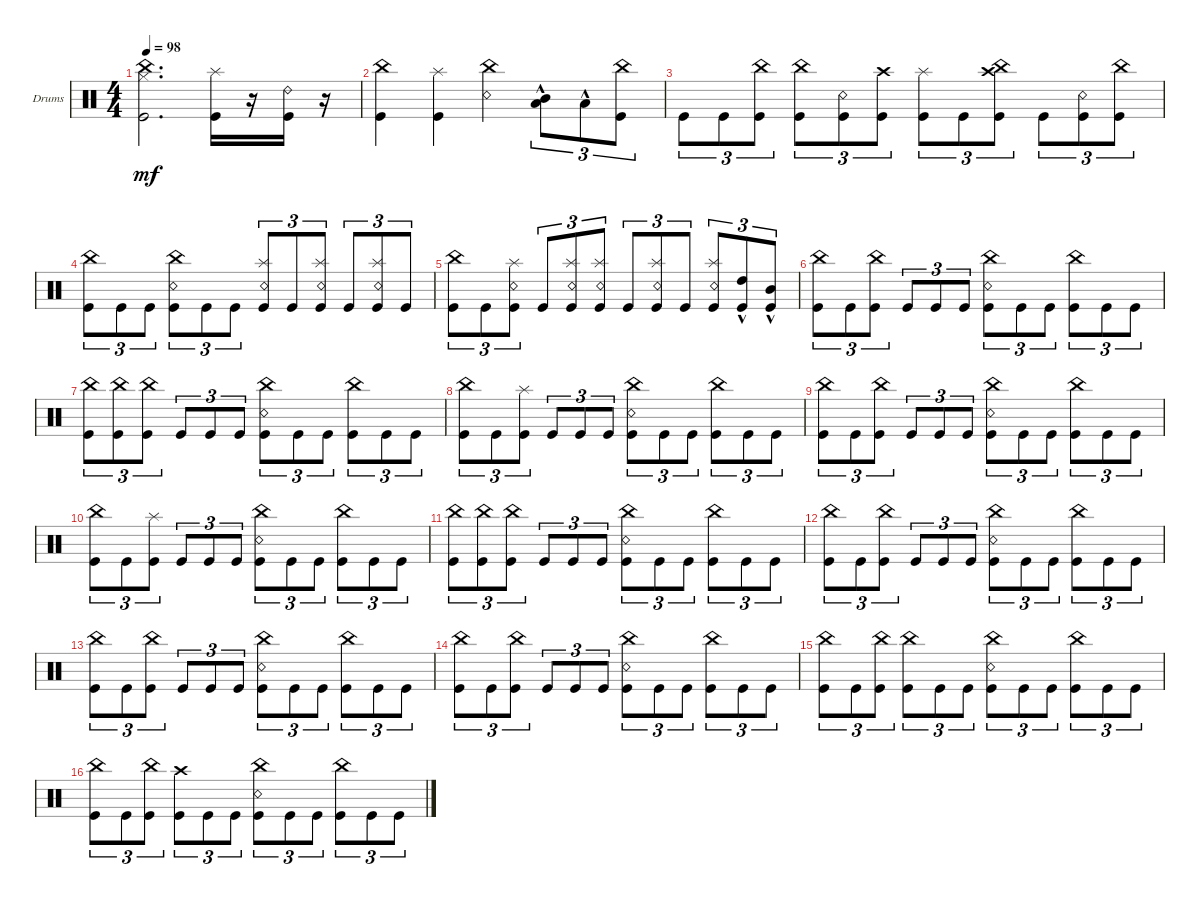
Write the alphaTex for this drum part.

\defaultSystemsLayout 4
\bracketExtendMode groupsimilarinstruments
\firstSystemTrackNameOrientation horizontal
\otherSystemsTrackNameOrientation horizontal
\track ("Drumkit" "Drums") {instrument percussion}
\staff {score}
\articulation defaults
\ts (4 4)
\tempo 98
\clef neutral
\scale
0.333333
\ks c
("China (hit)" "Kick (hit)" "Hi-Hat (closed)").2{d dy mf} ("Splash (hit)" "Kick (hit)").16 r.16 ("Kick (hit)" "Ride (bell) 2").16 r.16 |
\scale
0.333333 ("Kick (hit)" "China (hit)").4 ("Kick (hit)" "Splash (hit)").4 ("Snare (rim shot)" "China (hit)").4 ("Mid Tom (hit)" "Low Tom (hit)"{hac}).8{tu (3 2)} "Low Tom (hit)"{hac}.8{tu (3 2)} ("Kick (hit)" "China (hit)").8{tu (3 2)} |
\scale
0.333333 "Kick (hit)".8{tu (3 2)} "Kick (hit)".8{tu (3 2)} ("Kick (hit)" "China (hit)").8{tu (3 2)} ("Kick (hit)" "China (hit)").8{tu (3 2)} ("Kick (hit)" "Snare (rim shot)").8{tu (3 2)} ("Kick (hit)" "Crash high (hit)").8{tu (3 2)} ("Kick (hit)" "Splash (hit)").8{tu (3 2)} "Kick (hit)".8{tu (3 2)} ("Kick (hit)" "China (hit)" "Crash high (hit)").8{tu (3 2)} "Kick (hit)".8{tu (3 2)} ("Kick (hit)" "Snare (rim shot)").8{tu (3 2)} ("Kick (hit)" "China (hit)").8{tu (3 2)} |
\scale
0.333333 ("Kick (hit)" "China (hit)").8{tu (3 2)} "Kick (hit)".8{tu (3 2)} "Kick (hit)".8{tu (3 2)} ("Kick (hit)" "China (hit)" "Snare (rim shot)").8{tu (3 2)} "Kick (hit)".8{tu (3 2)} "Kick (hit)".8{tu (3 2)} ("Kick (hit)" "Snare (rim shot)" "Splash (hit)").8{tu (3 2)} "Kick (hit)".8{tu (3 2)} ("Kick (hit)" "Snare (rim shot)" "Splash (hit)").8{tu (3 2)} "Kick (hit)".8{tu (3 2)} ("Kick (hit)" "Snare (rim shot)" "Splash (hit)").8{tu (3 2)} "Kick (hit)".8{tu (3 2)} |
\scale
0.333333 ("Kick (hit)" "China (hit)").8{tu (3 2)} "Kick (hit)".8{tu (3 2)} ("Kick (hit)" "Snare (rim shot)" "Splash (hit)").8{tu (3 2)} "Kick (hit)".8{tu (3 2)} ("Kick (hit)" "Snare (rim shot)" "Splash (hit)").8{tu (3 2)} ("Kick (hit)" "Snare (rim shot)" "Splash (hit)").8{tu (3 2)} "Kick (hit)".8{tu (3 2)} ("Kick (hit)" "Snare (rim shot)" "Splash (hit)").8{tu (3 2)} "Kick (hit)".8{tu (3 2)} ("Kick (hit)" "Snare (rim shot)" "Splash (hit)").8{tu (3 2)} ("Kick (hit)"{hac} "High Tom (hit)"{hac}).8{tu (3 2)} ("Kick (hit)"{hac} "Mid Tom (hit)"{hac}).8{tu (3 2)} |
\scale
0.333333 ("Kick (hit)" "China (hit)").8{tu (3 2)} "Kick (hit)".8{tu (3 2)} ("Kick (hit)" "China (hit)").8{tu (3 2)} "Kick (hit)".8{tu (3 2)} "Kick (hit)".8{tu (3 2)} "Kick (hit)".8{tu (3 2)} ("Snare (rim shot)" "Kick (hit)" "China (hit)").8{tu (3 2)} "Kick (hit)".8{tu (3 2)} "Kick (hit)".8{tu (3 2)} ("Kick (hit)" "China (hit)").8{tu (3 2)} "Kick (hit)".8{tu (3 2)} "Kick (hit)".8{tu (3 2)} |
\scale
0.333333 ("Kick (hit)" "China (hit)").8{tu (3 2)} ("Kick (hit)" "China (hit)").8{tu (3 2)} ("Kick (hit)" "China (hit)").8{tu (3 2)} "Kick (hit)".8{tu (3 2)} "Kick (hit)".8{tu (3 2)} "Kick (hit)".8{tu (3 2)} ("Snare (rim shot)" "Kick (hit)" "China (hit)").8{tu (3 2)} "Kick (hit)".8{tu (3 2)} "Kick (hit)".8{tu (3 2)} ("Kick (hit)" "China (hit)").8{tu (3 2)} "Kick (hit)".8{tu (3 2)} "Kick (hit)".8{tu (3 2)} |
\scale
0.333333 ("Kick (hit)" "China (hit)").8{tu (3 2)} "Kick (hit)".8{tu (3 2)} ("Kick (hit)" "Splash (hit)").8{tu (3 2)} "Kick (hit)".8{tu (3 2)} "Kick (hit)".8{tu (3 2)} "Kick (hit)".8{tu (3 2)} ("Snare (rim shot)" "Kick (hit)" "China (hit)").8{tu (3 2)} "Kick (hit)".8{tu (3 2)} "Kick (hit)".8{tu (3 2)} ("Kick (hit)" "China (hit)").8{tu (3 2)} "Kick (hit)".8{tu (3 2)} "Kick (hit)".8{tu (3 2)} |
\scale
0.333333 ("Kick (hit)" "China (hit)").8{tu (3 2)} "Kick (hit)".8{tu (3 2)} ("Kick (hit)" "China (hit)").8{tu (3 2)} "Kick (hit)".8{tu (3 2)} "Kick (hit)".8{tu (3 2)} "Kick (hit)".8{tu (3 2)} ("Snare (rim shot)" "Kick (hit)" "China (hit)").8{tu (3 2)} "Kick (hit)".8{tu (3 2)} "Kick (hit)".8{tu (3 2)} ("Kick (hit)" "China (hit)").8{tu (3 2)} "Kick (hit)".8{tu (3 2)} "Kick (hit)".8{tu (3 2)} |
\scale
0.333333 ("Kick (hit)" "China (hit)").8{tu (3 2)} "Kick (hit)".8{tu (3 2)} ("Kick (hit)" "Splash (hit)").8{tu (3 2)} "Kick (hit)".8{tu (3 2)} "Kick (hit)".8{tu (3 2)} "Kick (hit)".8{tu (3 2)} ("Snare (rim shot)" "Kick (hit)" "China (hit)").8{tu (3 2)} "Kick (hit)".8{tu (3 2)} "Kick (hit)".8{tu (3 2)} ("Kick (hit)" "China (hit)").8{tu (3 2)} "Kick (hit)".8{tu (3 2)} "Kick (hit)".8{tu (3 2)} |
\scale
0.333333 ("Kick (hit)" "China (hit)").8{tu (3 2)} ("Kick (hit)" "China (hit)").8{tu (3 2)} ("Kick (hit)" "China (hit)").8{tu (3 2)} "Kick (hit)".8{tu (3 2)} "Kick (hit)".8{tu (3 2)} "Kick (hit)".8{tu (3 2)} ("Snare (rim shot)" "Kick (hit)" "China (hit)").8{tu (3 2)} "Kick (hit)".8{tu (3 2)} "Kick (hit)".8{tu (3 2)} ("Kick (hit)" "China (hit)").8{tu (3 2)} "Kick (hit)".8{tu (3 2)} "Kick (hit)".8{tu (3 2)} |
\scale
0.333333 ("Kick (hit)" "China (hit)").8{tu (3 2)} "Kick (hit)".8{tu (3 2)} ("Kick (hit)" "China (hit)").8{tu (3 2)} "Kick (hit)".8{tu (3 2)} "Kick (hit)".8{tu (3 2)} "Kick (hit)".8{tu (3 2)} ("Snare (rim shot)" "Kick (hit)" "China (hit)").8{tu (3 2)} "Kick (hit)".8{tu (3 2)} "Kick (hit)".8{tu (3 2)} ("Kick (hit)" "China (hit)").8{tu (3 2)} "Kick (hit)".8{tu (3 2)} "Kick (hit)".8{tu (3 2)} |
\scale
0.333333 ("Kick (hit)" "China (hit)").8{tu (3 2)} "Kick (hit)".8{tu (3 2)} ("Kick (hit)" "China (hit)").8{tu (3 2)} "Kick (hit)".8{tu (3 2)} "Kick (hit)".8{tu (3 2)} "Kick (hit)".8{tu (3 2)} ("Snare (rim shot)" "Kick (hit)" "China (hit)").8{tu (3 2)} "Kick (hit)".8{tu (3 2)} "Kick (hit)".8{tu (3 2)} ("Kick (hit)" "China (hit)").8{tu (3 2)} "Kick (hit)".8{tu (3 2)} "Kick (hit)".8{tu (3 2)} |
\scale
0.333333 ("Kick (hit)" "China (hit)").8{tu (3 2)} "Kick (hit)".8{tu (3 2)} ("Kick (hit)" "China (hit)").8{tu (3 2)} "Kick (hit)".8{tu (3 2)} "Kick (hit)".8{tu (3 2)} "Kick (hit)".8{tu (3 2)} ("Snare (rim shot)" "Kick (hit)" "China (hit)").8{tu (3 2)} "Kick (hit)".8{tu (3 2)} "Kick (hit)".8{tu (3 2)} ("Kick (hit)" "China (hit)").8{tu (3 2)} "Kick (hit)".8{tu (3 2)} "Kick (hit)".8{tu (3 2)} |
\scale
0.333333 ("Kick (hit)" "China (hit)").8{tu (3 2)} "Kick (hit)".8{tu (3 2)} ("Kick (hit)" "China (hit)").8{tu (3 2)} ("Kick (hit)" "China (hit)").8{tu (3 2)} "Kick (hit)".8{tu (3 2)} "Kick (hit)".8{tu (3 2)} ("Snare (rim shot)" "Kick (hit)" "China (hit)").8{tu (3 2)} "Kick (hit)".8{tu (3 2)} "Kick (hit)".8{tu (3 2)} ("Kick (hit)" "China (hit)").8{tu (3 2)} "Kick (hit)".8{tu (3 2)} "Kick (hit)".8{tu (3 2)} |
\scale
0.333333 ("Kick (hit)" "China (hit)").8{tu (3 2)} "Kick (hit)".8{tu (3 2)} ("Kick (hit)" "China (hit)").8{tu (3 2)} ("Kick (hit)" "Crash high (hit)").8{tu (3 2)} "Kick (hit)".8{tu (3 2)} "Kick (hit)".8{tu (3 2)} ("Snare (rim shot)" "Kick (hit)" "China (hit)").8{tu (3 2)} "Kick (hit)".8{tu (3 2)} "Kick (hit)".8{tu (3 2)} ("Kick (hit)" "China (hit)").8{tu (3 2)} "Kick (hit)".8{tu (3 2)} "Kick (hit)".8{tu (3 2)}
